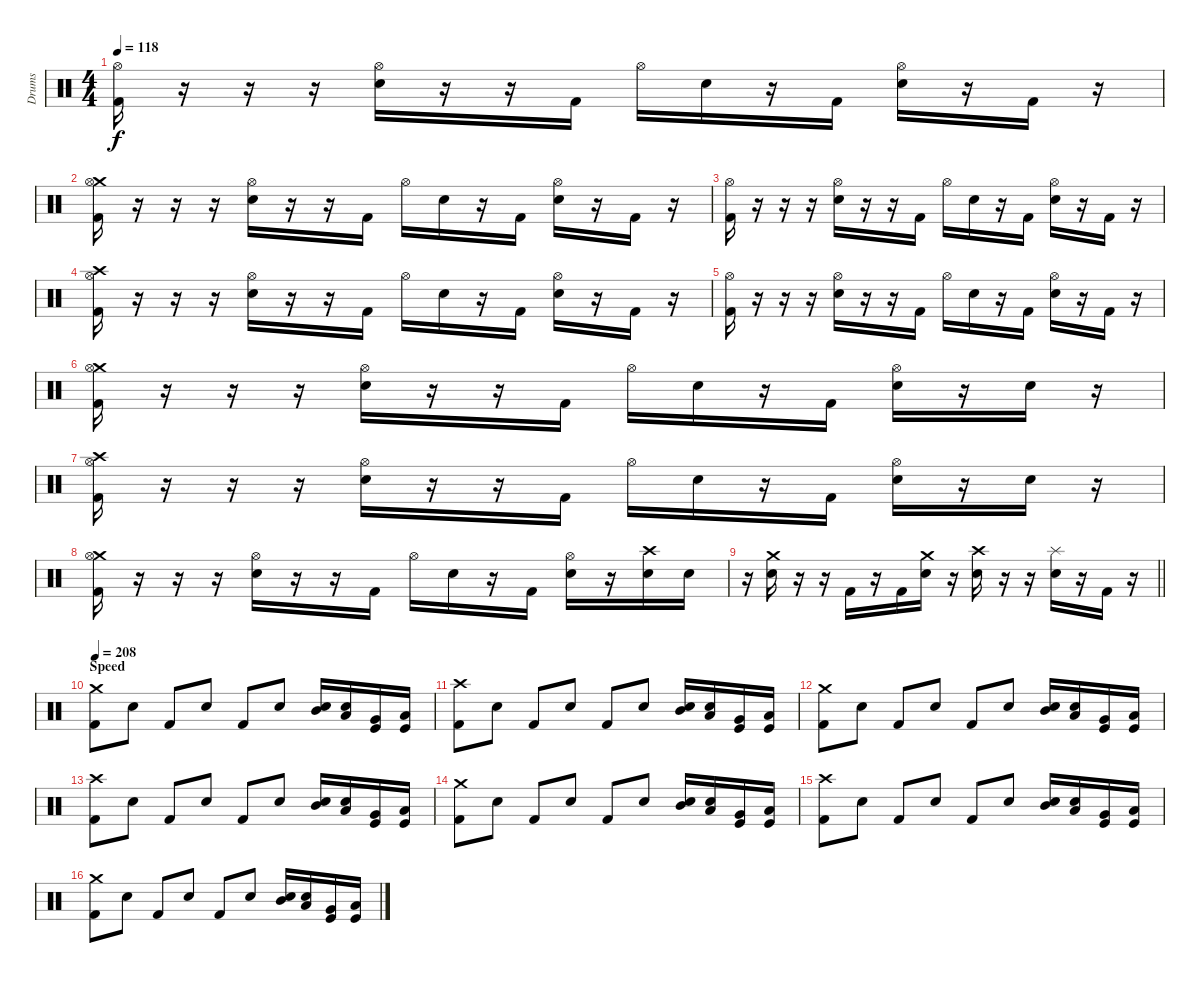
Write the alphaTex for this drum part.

\track ("Drums" "Drums") {instrument percussion}
\staff {score}
\articulation defaults
\ts (4 4)
\tempo 118
\clef neutral
\ks c
("Hi-Hat (open)" "Kick (hit) 2").16{dy f} r.16 r.16 r.16 ("Hi-Hat (open)" "Electric Snare (hit)").16 r.16 r.16 "Kick (hit) 2".16 "Hi-Hat (open)".16 "Electric Snare (hit)".16 r.16 "Kick (hit) 2".16 ("Hi-Hat (open)" "Electric Snare (hit)").16 r.16 "Kick (hit) 2".16 r.16 |
("Crash medium (hit)" "Hi-Hat (open)" "Kick (hit) 2").16 r.16 r.16 r.16 ("Hi-Hat (open)" "Electric Snare (hit)").16 r.16 r.16 "Kick (hit) 2".16 "Hi-Hat (open)".16 "Electric Snare (hit)".16 r.16 "Kick (hit) 2".16 ("Hi-Hat (open)" "Electric Snare (hit)").16 r.16 "Kick (hit) 2".16 r.16 |
("Hi-Hat (open)" "Kick (hit) 2").16 r.16 r.16 r.16 ("Hi-Hat (open)" "Electric Snare (hit)").16 r.16 r.16 "Kick (hit) 2".16 "Hi-Hat (open)".16 "Electric Snare (hit)".16 r.16 "Kick (hit) 2".16 ("Hi-Hat (open)" "Electric Snare (hit)").16 r.16 "Kick (hit) 2".16 r.16 |
("Crash high (hit)" "Hi-Hat (open)" "Kick (hit) 2").16 r.16 r.16 r.16 ("Hi-Hat (open)" "Electric Snare (hit)").16 r.16 r.16 "Kick (hit) 2".16 "Hi-Hat (open)".16 "Electric Snare (hit)".16 r.16 "Kick (hit) 2".16 ("Hi-Hat (open)" "Electric Snare (hit)").16 r.16 "Kick (hit) 2".16 r.16 |
("Hi-Hat (open)" "Kick (hit) 2").16 r.16 r.16 r.16 ("Hi-Hat (open)" "Electric Snare (hit)").16 r.16 r.16 "Kick (hit) 2".16 "Hi-Hat (open)".16 "Electric Snare (hit)".16 r.16 "Kick (hit) 2".16 ("Hi-Hat (open)" "Electric Snare (hit)").16 r.16 "Kick (hit) 2".16 r.16 |
("Crash medium (hit)" "Hi-Hat (open)" "Kick (hit) 2").16 r.16 r.16 r.16 ("Hi-Hat (open)" "Electric Snare (hit)").16 r.16 r.16 "Kick (hit) 2".16 "Hi-Hat (open)".16 "Electric Snare (hit)".16 r.16 "Kick (hit) 2".16 ("Hi-Hat (open)" "Electric Snare (hit)").16 r.16 "Electric Snare (hit)".16 r.16 |
("Crash high (hit)" "Hi-Hat (open)" "Kick (hit) 2").16 r.16 r.16 r.16 ("Hi-Hat (open)" "Electric Snare (hit)").16 r.16 r.16 "Kick (hit) 2".16 "Hi-Hat (open)".16 "Electric Snare (hit)".16 r.16 "Kick (hit) 2".16 ("Hi-Hat (open)" "Electric Snare (hit)").16 r.16 "Electric Snare (hit)".16 r.16 |
("Crash medium (hit)" "Hi-Hat (open)" "Kick (hit) 2").16 r.16 r.16 r.16 ("Hi-Hat (open)" "Electric Snare (hit)").16 r.16 r.16 "Kick (hit) 2".16 "Hi-Hat (open)".16 "Electric Snare (hit)".16 r.16 "Kick (hit) 2".16 ("Hi-Hat (open)" "Electric Snare (hit)").16 r.16 ("Crash high (hit)" "Electric Snare (hit)").16 "Electric Snare (hit)".16 |
\barLineRight lightlight
r.16 ("Crash medium (hit)" "Electric Snare (hit)").16 r.16 r.16 "Kick (hit) 2".16 r.16 "Kick (hit) 2".16 ("Crash medium (hit)" "Electric Snare (hit)").16 r.16 ("Crash high (hit)" "Electric Snare (hit)").16 r.16 r.16 ("Splash (hit)" "Electric Snare (hit)").16 r.16 "Kick (hit) 2".16 r.16 |
\section ("" "Speed")
\tempo 208
("Crash medium (hit)" "Kick (hit) 2").8 "Electric Snare (hit)".8 "Kick (hit) 2".8 "Electric Snare (hit)".8 "Kick (hit) 2".8 "Electric Snare (hit)".8 ("Mid Tom (hit)" "Electric Snare (hit)").16 ("Low Tom (hit)" "Electric Snare (hit)").16 ("Very Low Tom (hit)" "Kick (hit)").16 ("Low Floor Tom (hit)" "Kick (hit)").16 |
("Crash high (hit)" "Kick (hit) 2").8 "Electric Snare (hit)".8 "Kick (hit) 2".8 "Electric Snare (hit)".8 "Kick (hit) 2".8 "Electric Snare (hit)".8 ("Mid Tom (hit)" "Electric Snare (hit)").16 ("Low Tom (hit)" "Electric Snare (hit)").16 ("Very Low Tom (hit)" "Kick (hit)").16 ("Low Floor Tom (hit)" "Kick (hit)").16 |
("Crash medium (hit)" "Kick (hit) 2").8 "Electric Snare (hit)".8 "Kick (hit) 2".8 "Electric Snare (hit)".8 "Kick (hit) 2".8 "Electric Snare (hit)".8 ("Mid Tom (hit)" "Electric Snare (hit)").16 ("Low Tom (hit)" "Electric Snare (hit)").16 ("Very Low Tom (hit)" "Kick (hit)").16 ("Low Floor Tom (hit)" "Kick (hit)").16 |
("Crash high (hit)" "Kick (hit) 2").8 "Electric Snare (hit)".8 "Kick (hit) 2".8 "Electric Snare (hit)".8 "Kick (hit) 2".8 "Electric Snare (hit)".8 ("Mid Tom (hit)" "Electric Snare (hit)").16 ("Low Tom (hit)" "Electric Snare (hit)").16 ("Very Low Tom (hit)" "Kick (hit)").16 ("Low Floor Tom (hit)" "Kick (hit)").16 |
("Crash medium (hit)" "Kick (hit) 2").8 "Electric Snare (hit)".8 "Kick (hit) 2".8 "Electric Snare (hit)".8 "Kick (hit) 2".8 "Electric Snare (hit)".8 ("Mid Tom (hit)" "Electric Snare (hit)").16 ("Low Tom (hit)" "Electric Snare (hit)").16 ("Very Low Tom (hit)" "Kick (hit)").16 ("Low Floor Tom (hit)" "Kick (hit)").16 |
("Crash high (hit)" "Kick (hit) 2").8 "Electric Snare (hit)".8 "Kick (hit) 2".8 "Electric Snare (hit)".8 "Kick (hit) 2".8 "Electric Snare (hit)".8 ("Mid Tom (hit)" "Electric Snare (hit)").16 ("Low Tom (hit)" "Electric Snare (hit)").16 ("Very Low Tom (hit)" "Kick (hit)").16 ("Low Floor Tom (hit)" "Kick (hit)").16 |
("Crash medium (hit)" "Kick (hit) 2").8 "Electric Snare (hit)".8 "Kick (hit) 2".8 "Electric Snare (hit)".8 "Kick (hit) 2".8 "Electric Snare (hit)".8 ("Mid Tom (hit)" "Electric Snare (hit)").16 ("Low Tom (hit)" "Electric Snare (hit)").16 ("Very Low Tom (hit)" "Kick (hit)").16 ("Low Floor Tom (hit)" "Kick (hit)").16
